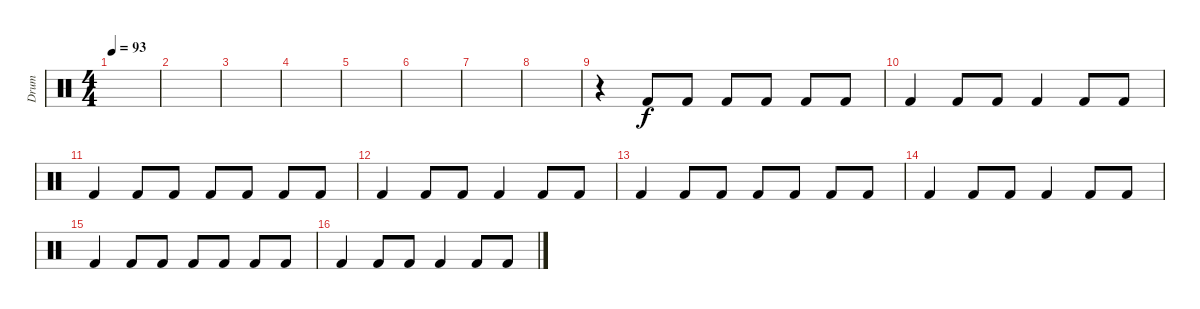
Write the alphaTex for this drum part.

\track ("Drum" "Drum") {instrument percussion}
\staff {score}
\articulation defaults
\ts (4 4)
\tempo 93
\clef neutral
\ks c
|
|
|
|
|
|
|
|
r.4 "Kick (hit) 2".8 "Kick (hit) 2".8 "Kick (hit) 2".8 "Kick (hit) 2".8 "Kick (hit) 2".8 "Kick (hit) 2".8 |
"Kick (hit) 2".4 "Kick (hit) 2".8 "Kick (hit) 2".8 "Kick (hit) 2".4 "Kick (hit) 2".8 "Kick (hit) 2".8 |
"Kick (hit) 2".4 "Kick (hit) 2".8 "Kick (hit) 2".8 "Kick (hit) 2".8 "Kick (hit) 2".8 "Kick (hit) 2".8 "Kick (hit) 2".8 |
"Kick (hit) 2".4 "Kick (hit) 2".8 "Kick (hit) 2".8 "Kick (hit) 2".4 "Kick (hit) 2".8 "Kick (hit) 2".8 |
"Kick (hit) 2".4 "Kick (hit) 2".8 "Kick (hit) 2".8 "Kick (hit) 2".8 "Kick (hit) 2".8 "Kick (hit) 2".8 "Kick (hit) 2".8 |
"Kick (hit) 2".4 "Kick (hit) 2".8 "Kick (hit) 2".8 "Kick (hit) 2".4 "Kick (hit) 2".8 "Kick (hit) 2".8 |
"Kick (hit) 2".4 "Kick (hit) 2".8 "Kick (hit) 2".8 "Kick (hit) 2".8 "Kick (hit) 2".8 "Kick (hit) 2".8 "Kick (hit) 2".8 |
"Kick (hit) 2".4 "Kick (hit) 2".8 "Kick (hit) 2".8 "Kick (hit) 2".4 "Kick (hit) 2".8 "Kick (hit) 2".8
